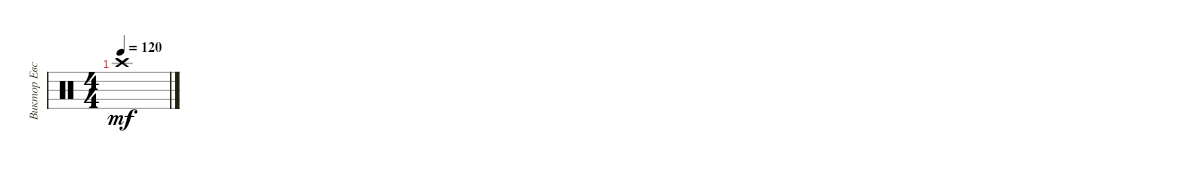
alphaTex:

\track ("Виктор Евстратов" "Виктор Евс") {instrument percussion}
\staff {score}
\articulation defaults
\ts (4 4)
\tempo 120
\clef neutral
\ks c "Crash high (hit)".1{dy mf}
